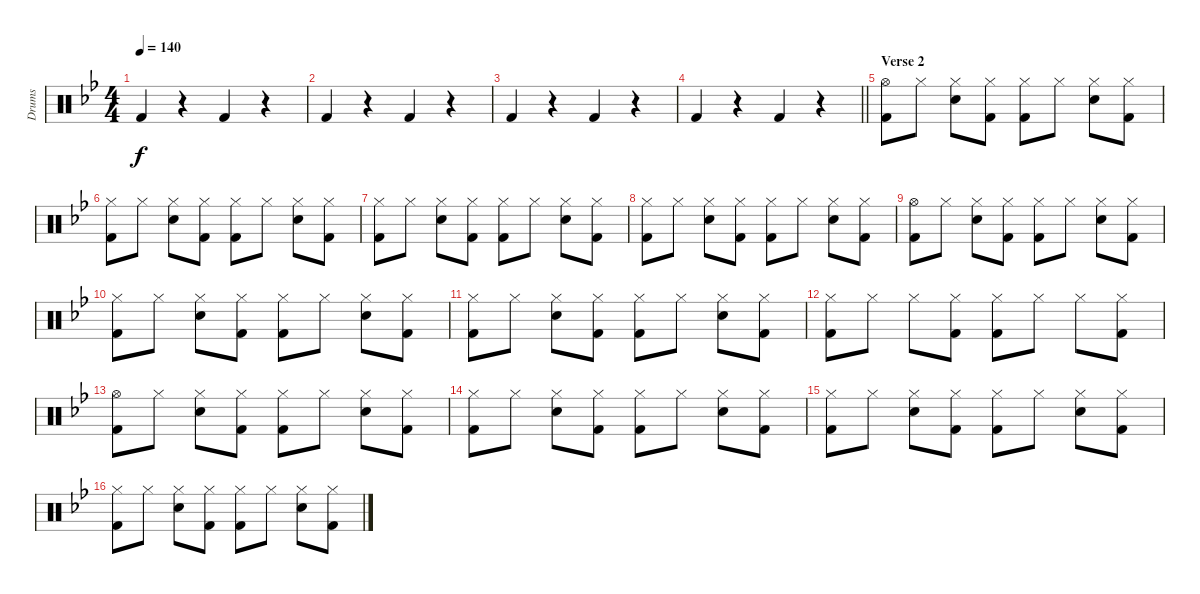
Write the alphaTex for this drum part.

\track ("Drums" "Drums") {instrument percussion}
\staff {score}
\articulation defaults
\ts (4 4)
\tempo 140
\clef neutral
\ks bb "Kick (hit) 2".4{dy f}
r.4 "Kick (hit) 2".4 r.4 |
"Kick (hit) 2".4 r.4 "Kick (hit) 2".4 r.4 |
"Kick (hit) 2".4 r.4 "Kick (hit) 2".4 r.4 |
\barLineRight lightlight "Kick (hit) 2".4
r.4 "Kick (hit) 2".4 r.4 |
\section ("" "Verse 2")
("Hi-Hat (open)" "Kick (hit) 2").8 "Hi-Hat (closed)".8 ("Hi-Hat (closed)" "Snare (hit) 2").8 ("Hi-Hat (closed)" "Kick (hit) 2").8 ("Hi-Hat (closed)" "Kick (hit) 2").8 "Hi-Hat (closed)".8 ("Hi-Hat (closed)" "Snare (hit) 2").8 ("Hi-Hat (closed)" "Kick (hit) 2").8 |
("Hi-Hat (closed)" "Kick (hit) 2").8 "Hi-Hat (closed)".8 ("Hi-Hat (closed)" "Snare (hit) 2").8 ("Hi-Hat (closed)" "Kick (hit) 2").8 ("Hi-Hat (closed)" "Kick (hit) 2").8 "Hi-Hat (closed)".8 ("Hi-Hat (closed)" "Snare (hit) 2").8 ("Hi-Hat (closed)" "Kick (hit) 2").8 |
("Hi-Hat (closed)" "Kick (hit) 2").8 "Hi-Hat (closed)".8 ("Hi-Hat (closed)" "Snare (hit) 2").8 ("Hi-Hat (closed)" "Kick (hit) 2").8 ("Hi-Hat (closed)" "Kick (hit) 2").8 "Hi-Hat (closed)".8 ("Hi-Hat (closed)" "Snare (hit) 2").8 ("Hi-Hat (closed)" "Kick (hit) 2").8 |
("Hi-Hat (closed)" "Kick (hit) 2").8 "Hi-Hat (closed)".8 ("Hi-Hat (closed)" "Snare (hit) 2").8 ("Hi-Hat (closed)" "Kick (hit) 2").8 ("Hi-Hat (closed)" "Kick (hit) 2").8 "Hi-Hat (closed)".8 ("Hi-Hat (closed)" "Snare (hit) 2").8 ("Hi-Hat (closed)" "Kick (hit) 2").8 |
("Hi-Hat (open)" "Kick (hit) 2").8 "Hi-Hat (closed)".8 ("Hi-Hat (closed)" "Snare (hit) 2").8 ("Hi-Hat (closed)" "Kick (hit) 2").8 ("Hi-Hat (closed)" "Kick (hit) 2").8 "Hi-Hat (closed)".8 ("Hi-Hat (closed)" "Snare (hit) 2").8 ("Hi-Hat (closed)" "Kick (hit) 2").8 |
("Hi-Hat (closed)" "Kick (hit) 2").8 "Hi-Hat (closed)".8 ("Hi-Hat (closed)" "Snare (hit) 2").8 ("Hi-Hat (closed)" "Kick (hit) 2").8 ("Hi-Hat (closed)" "Kick (hit) 2").8 "Hi-Hat (closed)".8 ("Hi-Hat (closed)" "Snare (hit) 2").8 ("Hi-Hat (closed)" "Kick (hit) 2").8 |
("Hi-Hat (closed)" "Kick (hit) 2").8 "Hi-Hat (closed)".8 ("Hi-Hat (closed)" "Snare (hit) 2").8 ("Hi-Hat (closed)" "Kick (hit) 2").8 ("Hi-Hat (closed)" "Kick (hit) 2").8 "Hi-Hat (closed)".8 ("Hi-Hat (closed)" "Snare (hit) 2").8 ("Hi-Hat (closed)" "Kick (hit) 2").8 |
("Hi-Hat (closed)" "Kick (hit) 2").8 "Hi-Hat (closed)".8 "Hi-Hat (closed)".8 ("Hi-Hat (closed)" "Kick (hit) 2").8 ("Hi-Hat (closed)" "Kick (hit) 2").8 "Hi-Hat (closed)".8 "Hi-Hat (closed)".8 ("Hi-Hat (closed)" "Kick (hit) 2").8 |
("Hi-Hat (open)" "Kick (hit) 2").8 "Hi-Hat (closed)".8 ("Hi-Hat (closed)" "Snare (hit) 2").8 ("Hi-Hat (closed)" "Kick (hit) 2").8 ("Hi-Hat (closed)" "Kick (hit) 2").8 "Hi-Hat (closed)".8 ("Hi-Hat (closed)" "Snare (hit) 2").8 ("Hi-Hat (closed)" "Kick (hit) 2").8 |
("Hi-Hat (closed)" "Kick (hit) 2").8 "Hi-Hat (closed)".8 ("Hi-Hat (closed)" "Snare (hit) 2").8 ("Hi-Hat (closed)" "Kick (hit) 2").8 ("Hi-Hat (closed)" "Kick (hit) 2").8 "Hi-Hat (closed)".8 ("Hi-Hat (closed)" "Snare (hit) 2").8 ("Hi-Hat (closed)" "Kick (hit) 2").8 |
("Hi-Hat (closed)" "Kick (hit) 2").8 "Hi-Hat (closed)".8 ("Hi-Hat (closed)" "Snare (hit) 2").8 ("Hi-Hat (closed)" "Kick (hit) 2").8 ("Hi-Hat (closed)" "Kick (hit) 2").8 "Hi-Hat (closed)".8 ("Hi-Hat (closed)" "Snare (hit) 2").8 ("Hi-Hat (closed)" "Kick (hit) 2").8 |
("Hi-Hat (closed)" "Kick (hit) 2").8 "Hi-Hat (closed)".8 ("Hi-Hat (closed)" "Snare (hit) 2").8 ("Hi-Hat (closed)" "Kick (hit) 2").8 ("Hi-Hat (closed)" "Kick (hit) 2").8 "Hi-Hat (closed)".8 ("Hi-Hat (closed)" "Snare (hit) 2").8 ("Hi-Hat (closed)" "Kick (hit) 2").8
